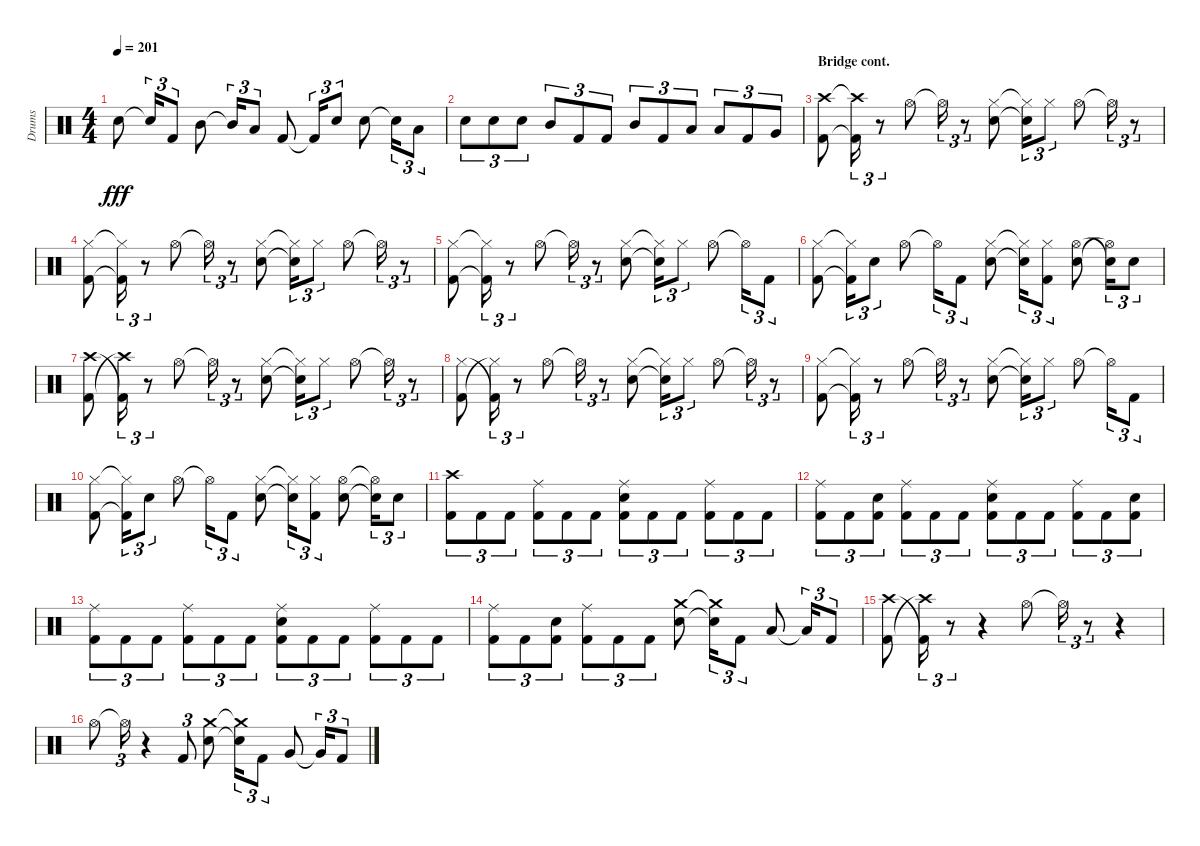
\track ("Drums" "Drums") {instrument percussion}
\staff {score}
\articulation defaults
\ts (4 4)
\tempo 201
\clef neutral
\ks aminor "Snare (hit) 2".8{dy fff} "Snare (hit) 2"{t}.16{tu (3 2)} "Kick (hit) 2".8{tu (3 2)} "Mid Tom (hit)".8 "Mid Tom (hit)"{t}.16{tu (3 2)} "Low Tom (hit)".8{tu (3 2)} "Kick (hit) 2".8 "Kick (hit) 2"{t}.16{tu (3 2)} "Snare (hit) 2".8{tu (3 2)} "Snare (hit) 2".8 "Snare (hit) 2"{t}.16{tu (3 2)} "Low Floor Tom (hit)".8{tu (3 2)}
|
"Snare (hit) 2".8{tu (3 2)} "Snare (hit) 2".8{tu (3 2)} "Snare (hit) 2".8{tu (3 2)} "Mid Tom (hit)".8{tu (3 2)} "Kick (hit) 2".8{tu (3 2)} "Kick (hit) 2".8{tu (3 2)} "Mid Tom (hit)".8{tu (3 2)} "Kick (hit) 2".8{tu (3 2)} "Low Tom (hit)".8{tu (3 2)} "Low Tom (hit)".8{tu (3 2)} "Kick (hit) 2".8{tu (3 2)} "Very Low Tom (hit)".8{tu (3 2)} |
\section ("" "Bridge cont.")
("Kick (hit) 2" "Crash high (hit)").8 ("Kick (hit) 2"{t} "Crash high (hit)"{t}).16{tu (3 2)} r.8{tu (3 2)} "Hi-Hat (open)".8 "Hi-Hat (open)"{t}.16{tu (3 2)} r.8{tu (3 2)} ("Snare (hit) 2" "Hi-Hat (closed)").8 ("Snare (hit) 2"{t} "Hi-Hat (closed)"{t}).16{tu (3 2)} "Hi-Hat (closed)".8{tu (3 2)} "Hi-Hat (open)".8 "Hi-Hat (open)"{t}.16{tu (3 2)} r.8{tu (3 2)} |
("Kick (hit) 2" "Hi-Hat (closed)").8 ("Kick (hit) 2"{t} "Hi-Hat (closed)"{t}).16{tu (3 2)} r.8{tu (3 2)} "Hi-Hat (open)".8 "Hi-Hat (open)"{t}.16{tu (3 2)} r.8{tu (3 2)} ("Hi-Hat (closed)" "Snare (hit) 2").8 ("Hi-Hat (closed)"{t} "Snare (hit) 2"{t}).16{tu (3 2)} "Hi-Hat (closed)".8{tu (3 2)} "Hi-Hat (open)".8 "Hi-Hat (open)"{t}.16{tu (3 2)} r.8{tu (3 2)} |
("Kick (hit) 2" "Hi-Hat (closed)").8 ("Kick (hit) 2"{t} "Hi-Hat (closed)"{t}).16{tu (3 2)} r.8{tu (3 2)} "Hi-Hat (open)".8 "Hi-Hat (open)"{t}.16{tu (3 2)} r.8{tu (3 2)} ("Snare (hit) 2" "Hi-Hat (closed)").8 ("Snare (hit) 2"{t} "Hi-Hat (closed)"{t}).16{tu (3 2)} "Hi-Hat (closed)".8{tu (3 2)} "Hi-Hat (open)".8 "Hi-Hat (open)"{t}.16{tu (3 2)} "Kick (hit) 2".8{tu (3 2)} |
("Kick (hit) 2" "Hi-Hat (closed)").8 ("Kick (hit) 2"{t} "Hi-Hat (closed)"{t}).16{tu (3 2)} "Snare (hit) 2".8{tu (3 2)} "Hi-Hat (open)".8 "Hi-Hat (open)"{t}.16{tu (3 2)} "Kick (hit) 2".8{tu (3 2)} ("Snare (hit) 2" "Hi-Hat (closed)").8 ("Snare (hit) 2"{t} "Hi-Hat (closed)"{t}).16{tu (3 2)} ("Kick (hit) 2" "Hi-Hat (closed)").8{tu (3 2)} ("Snare (hit) 2" "Hi-Hat (open)").8 ("Hi-Hat (open)"{t} "Snare (hit) 2"{t}).16{tu (3 2)} "Snare (hit) 2".8{tu (3 2)} |
("Kick (hit) 2" "Crash high (hit)").8 ("Crash high (hit)"{t} "Kick (hit) 2"{t}).16{tu (3 2)} r.8{tu (3 2)} "Hi-Hat (open)".8 "Hi-Hat (open)"{t}.16{tu (3 2)} r.8{tu (3 2)} ("Snare (hit) 2" "Hi-Hat (closed)").8 ("Snare (hit) 2"{t} "Hi-Hat (closed)"{t}).16{tu (3 2)} "Hi-Hat (closed)".8{tu (3 2)} "Hi-Hat (open)".8 "Hi-Hat (open)"{t}.16{tu (3 2)} r.8{tu (3 2)} |
("Hi-Hat (closed)" "Kick (hit) 2").8 ("Kick (hit) 2"{t} "Hi-Hat (closed)"{t}).16{tu (3 2)} r.8{tu (3 2)} "Hi-Hat (open)".8 "Hi-Hat (open)"{t}.16{tu (3 2)} r.8{tu (3 2)} ("Snare (hit) 2" "Hi-Hat (closed)").8 ("Snare (hit) 2"{t} "Hi-Hat (closed)"{t}).16{tu (3 2)} "Hi-Hat (closed)".8{tu (3 2)} "Hi-Hat (open)".8 "Hi-Hat (open)"{t}.16{tu (3 2)} r.8{tu (3 2)} |
("Kick (hit) 2" "Hi-Hat (closed)").8 ("Kick (hit) 2"{t} "Hi-Hat (closed)"{t}).16{tu (3 2)} r.8{tu (3 2)} "Hi-Hat (open)".8 "Hi-Hat (open)"{t}.16{tu (3 2)} r.8{tu (3 2)} ("Snare (hit) 2" "Hi-Hat (closed)").8 ("Snare (hit) 2"{t} "Hi-Hat (closed)"{t}).16{tu (3 2)} "Hi-Hat (closed)".8{tu (3 2)} "Hi-Hat (open)".8 "Hi-Hat (open)"{t}.16{tu (3 2)} "Kick (hit) 2".8{tu (3 2)} |
("Kick (hit) 2" "Hi-Hat (closed)").8 ("Kick (hit) 2"{t} "Hi-Hat (closed)"{t}).16{tu (3 2)} "Snare (hit) 2".8{tu (3 2)} "Hi-Hat (open)".8 "Hi-Hat (open)"{t}.16{tu (3 2)} "Kick (hit) 2".8{tu (3 2)} ("Snare (hit) 2" "Hi-Hat (closed)").8 ("Snare (hit) 2"{t} "Hi-Hat (closed)"{t}).16{tu (3 2)} ("Kick (hit) 2" "Hi-Hat (closed)").8{tu (3 2)} ("Snare (hit) 2" "Hi-Hat (open)").8 ("Snare (hit) 2"{t} "Hi-Hat (open)"{t}).16{tu (3 2)} "Snare (hit) 2".8{tu (3 2)} |
("Crash high (hit)" "Kick (hit) 2").8{tu (3 2)} "Kick (hit) 2".8{tu (3 2)} "Kick (hit) 2".8{tu (3 2)} ("Kick (hit) 2" "Ride (middle)").8{tu (3 2)} "Kick (hit) 2".8{tu (3 2)} "Kick (hit) 2".8{tu (3 2)} ("Snare (hit) 2" "Ride (middle)" "Kick (hit) 2").8{tu (3 2)} "Kick (hit) 2".8{tu (3 2)} "Kick (hit) 2".8{tu (3 2)} ("Kick (hit) 2" "Ride (middle)").8{tu (3 2)} "Kick (hit) 2".8{tu (3 2)} "Kick (hit) 2".8{tu (3 2)} |
("Kick (hit) 2" "Ride (middle)").8{tu (3 2)} "Kick (hit) 2".8{tu (3 2)} ("Snare (hit) 2" "Kick (hit) 2").8{tu (3 2)} ("Kick (hit) 2" "Ride (middle)").8{tu (3 2)} "Kick (hit) 2".8{tu (3 2)} "Kick (hit) 2".8{tu (3 2)} ("Kick (hit) 2" "Snare (hit) 2" "Ride (middle)").8{tu (3 2)} "Kick (hit) 2".8{tu (3 2)} "Kick (hit) 2".8{tu (3 2)} ("Kick (hit) 2" "Ride (middle)").8{tu (3 2)} "Kick (hit) 2".8{tu (3 2)} ("Snare (hit) 2" "Kick (hit) 2").8{tu (3 2)} |
("Ride (middle)" "Kick (hit) 2").8{tu (3 2)} "Kick (hit) 2".8{tu (3 2)} "Kick (hit) 2".8{tu (3 2)} ("Kick (hit) 2" "Ride (middle)").8{tu (3 2)} "Kick (hit) 2".8{tu (3 2)} "Kick (hit) 2".8{tu (3 2)} ("Kick (hit) 2" "Snare (hit) 2" "Ride (middle)").8{tu (3 2)} "Kick (hit) 2".8{tu (3 2)} "Kick (hit) 2".8{tu (3 2)} ("Ride (middle)" "Kick (hit) 2").8{tu (3 2)} "Kick (hit) 2".8{tu (3 2)} "Kick (hit) 2".8{tu (3 2)} |
("Kick (hit) 2" "Ride (middle)").8{tu (3 2)} "Kick (hit) 2".8{tu (3 2)} ("Kick (hit) 2" "Snare (hit) 2").8{tu (3 2)} ("Kick (hit) 2" "Ride (middle)").8{tu (3 2)} "Kick (hit) 2".8{tu (3 2)} "Kick (hit) 2".8{tu (3 2)} ("Crash medium (hit)" "Snare (hit) 2").8 ("Crash medium (hit)"{t} "Snare (hit) 2"{t}).16{tu (3 2)} "Kick (hit) 2".8{tu (3 2)} "Low Floor Tom (hit)".8 "Low Floor Tom (hit)"{t}.16{tu (3 2)} "Kick (hit) 2".8{tu (3 2)} |
("Kick (hit) 2" "Crash high (hit)").8 ("Crash high (hit)"{t} "Kick (hit) 2"{t}).16{tu (3 2)} r.8{tu (3 2)} r.4 "Hi-Hat (open)".8 "Hi-Hat (open)"{t}.16{tu (3 2)} r.8{tu (3 2)} r.4 |
"Hi-Hat (open)".8 "Hi-Hat (open)"{t}.16{tu (3 2)} r.4 "Kick (hit) 2".8{tu (3 2)} ("Snare (hit) 2" "Crash medium (hit)").8 ("Snare (hit) 2"{t} "Crash medium (hit)"{t}).16{tu (3 2)} "Kick (hit) 2".8{tu (3 2)} "Very Low Tom (hit)".8 "Very Low Tom (hit)"{t}.16{tu (3 2)} "Kick (hit) 2".8{tu (3 2)}
